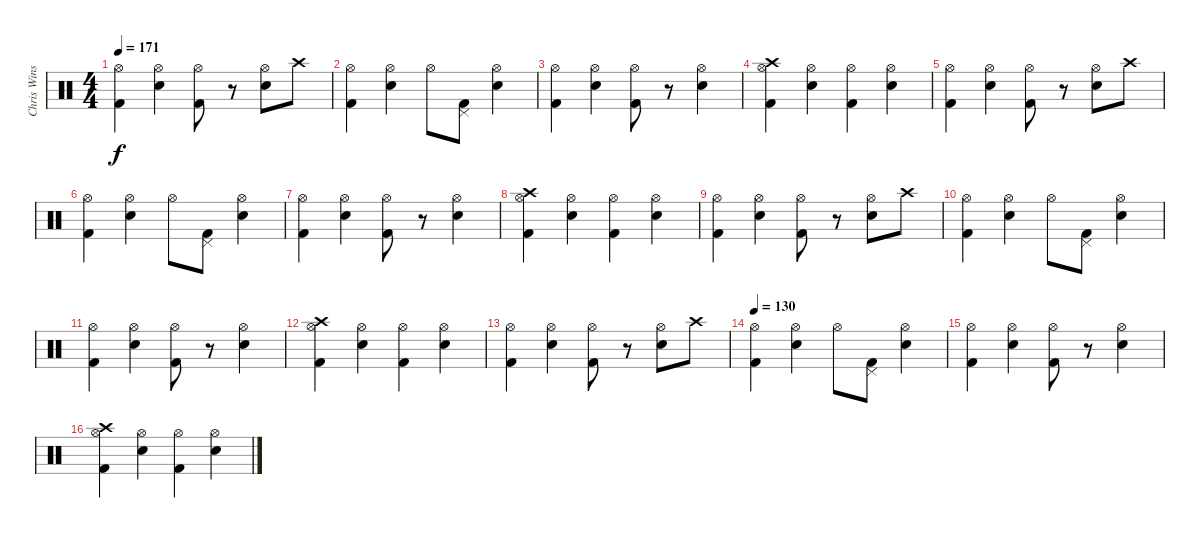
\track ("Chris Winship (Drums)" "Chris Wins") {instrument percussion}
\staff {score}
\articulation defaults
\ts (4 4)
\tempo 171
\clef neutral
\ks c
("Hi-Hat (open)" "Kick (hit) 2").4{dy f} ("Hi-Hat (open)" "Snare (hit) 2").4 ("Hi-Hat (open)" "Kick (hit) 2").8 r.8 ("Hi-Hat (open)" "Snare (hit) 2").8 "Crash high (hit)".8 |
("Hi-Hat (open)" "Kick (hit) 2").4 ("Hi-Hat (open)" "Snare (hit) 2").4 "Hi-Hat (open)".8 ("Pedal Hi-Hat (hit)" "Kick (hit) 2").8 ("Hi-Hat (open)" "Snare (hit) 2").4 |
("Hi-Hat (open)" "Kick (hit) 2").4 ("Hi-Hat (open)" "Snare (hit) 2").4 ("Hi-Hat (open)" "Kick (hit) 2").8 r.8 ("Hi-Hat (open)" "Snare (hit) 2").4 |
("Crash high (hit)" "Hi-Hat (open)" "Kick (hit) 2").4 ("Hi-Hat (open)" "Snare (hit) 2").4 ("Hi-Hat (open)" "Kick (hit) 2").4 ("Hi-Hat (open)" "Snare (hit) 2").4 |
("Hi-Hat (open)" "Kick (hit) 2").4 ("Hi-Hat (open)" "Snare (hit) 2").4 ("Hi-Hat (open)" "Kick (hit) 2").8 r.8 ("Hi-Hat (open)" "Snare (hit) 2").8 "Crash high (hit)".8 |
("Hi-Hat (open)" "Kick (hit) 2").4 ("Hi-Hat (open)" "Snare (hit) 2").4 "Hi-Hat (open)".8 ("Pedal Hi-Hat (hit)" "Kick (hit) 2").8 ("Hi-Hat (open)" "Snare (hit) 2").4 |
("Hi-Hat (open)" "Kick (hit) 2").4 ("Hi-Hat (open)" "Snare (hit) 2").4 ("Hi-Hat (open)" "Kick (hit) 2").8 r.8 ("Hi-Hat (open)" "Snare (hit) 2").4 |
("Crash high (hit)" "Hi-Hat (open)" "Kick (hit) 2").4 ("Hi-Hat (open)" "Snare (hit) 2").4 ("Hi-Hat (open)" "Kick (hit) 2").4 ("Hi-Hat (open)" "Snare (hit) 2").4 |
("Hi-Hat (open)" "Kick (hit) 2").4 ("Hi-Hat (open)" "Snare (hit) 2").4 ("Hi-Hat (open)" "Kick (hit) 2").8 r.8 ("Hi-Hat (open)" "Snare (hit) 2").8 "Crash high (hit)".8 |
("Hi-Hat (open)" "Kick (hit) 2").4 ("Hi-Hat (open)" "Snare (hit) 2").4 "Hi-Hat (open)".8 ("Pedal Hi-Hat (hit)" "Kick (hit) 2").8 ("Hi-Hat (open)" "Snare (hit) 2").4 |
("Hi-Hat (open)" "Kick (hit) 2").4 ("Hi-Hat (open)" "Snare (hit) 2").4 ("Hi-Hat (open)" "Kick (hit) 2").8 r.8 ("Hi-Hat (open)" "Snare (hit) 2").4 |
("Crash high (hit)" "Hi-Hat (open)" "Kick (hit) 2").4 ("Hi-Hat (open)" "Snare (hit) 2").4 ("Hi-Hat (open)" "Kick (hit) 2").4 ("Hi-Hat (open)" "Snare (hit) 2").4 |
("Hi-Hat (open)" "Kick (hit) 2").4 ("Hi-Hat (open)" "Snare (hit) 2").4 ("Hi-Hat (open)" "Kick (hit) 2").8 r.8 ("Hi-Hat (open)" "Snare (hit) 2").8 "Crash high (hit)".8 |
\tempo 130
("Hi-Hat (open)" "Kick (hit) 2").4 ("Hi-Hat (open)" "Snare (hit) 2").4 "Hi-Hat (open)".8 ("Pedal Hi-Hat (hit)" "Kick (hit) 2").8 ("Hi-Hat (open)" "Snare (hit) 2").4 |
("Hi-Hat (open)" "Kick (hit) 2").4 ("Hi-Hat (open)" "Snare (hit) 2").4 ("Hi-Hat (open)" "Kick (hit) 2").8 r.8 ("Hi-Hat (open)" "Snare (hit) 2").4 |
("Crash high (hit)" "Hi-Hat (open)" "Kick (hit) 2").4 ("Hi-Hat (open)" "Snare (hit) 2").4 ("Hi-Hat (open)" "Kick (hit) 2").4 ("Hi-Hat (open)" "Snare (hit) 2").4
